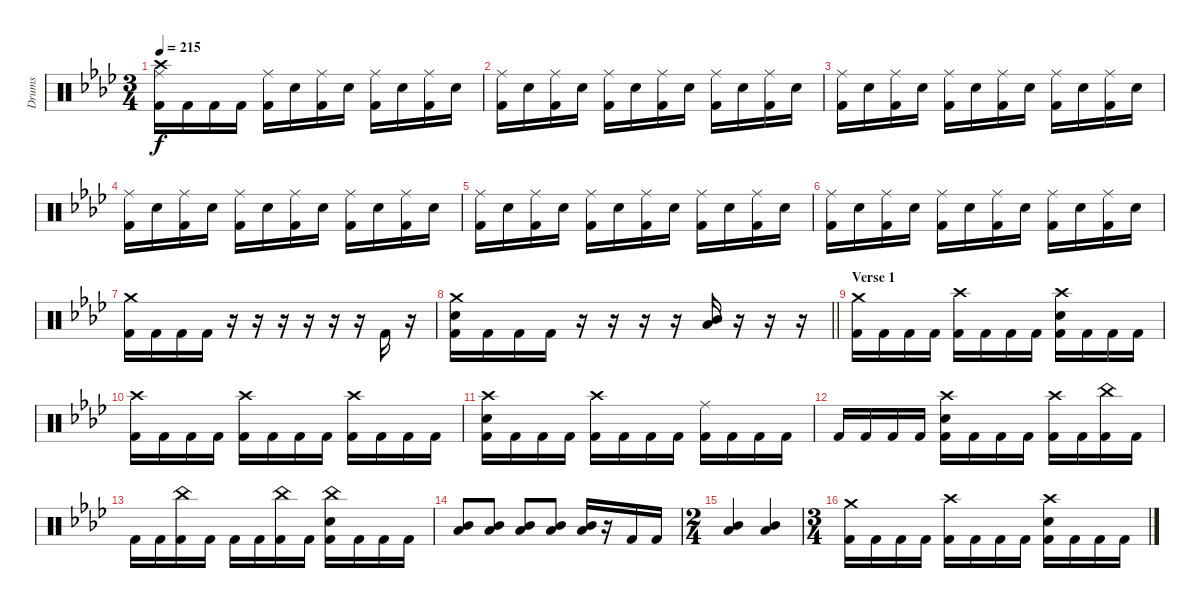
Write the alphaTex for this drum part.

\bracketExtendMode groupsimilarinstruments
\otherSystemsTrackNameOrientation horizontal
\track ("Guyot Begin-Benoit" "Drums") {instrument percussion}
\staff {score}
\articulation defaults
\ts (3 4)
\tempo 215
\clef neutral
\ks ab
("Ride (middle)"{acc forcenatural} "Crash high (hit)"{acc forcenatural} "Kick (hit) 2"{acc forcenatural}).16{dy f beam Down} "Kick (hit) 2"{acc forcenatural}.16{beam Down} "Kick (hit) 2"{acc forcenatural}.16{beam Down} "Kick (hit) 2"{acc forcenatural}.16{beam Down} ("Ride (middle)"{acc forcenatural} "Kick (hit) 2"{acc forcenatural}).16{beam Down} "Snare (hit) 2"{acc forcenatural}.16{beam Down} ("Ride (middle)"{acc forcenatural} "Kick (hit) 2"{acc forcenatural}).16{beam Down} "Snare (hit) 2"{acc forcenatural}.16{beam Down} ("Ride (middle)"{acc forcenatural} "Kick (hit) 2"{acc forcenatural}).16{beam Down} "Snare (hit) 2"{acc forcenatural}.16{beam Down} ("Ride (middle)"{acc forcenatural} "Kick (hit) 2"{acc forcenatural}).16{beam Down} "Snare (hit) 2"{acc forcenatural}.16{beam Down} |
("Ride (middle)"{acc forcenatural} "Kick (hit) 2"{acc forcenatural}).16{beam Down} "Snare (hit) 2"{acc forcenatural}.16{beam Down} ("Ride (middle)"{acc forcenatural} "Kick (hit) 2"{acc forcenatural}).16{beam Down} "Snare (hit) 2"{acc forcenatural}.16{beam Down} ("Ride (middle)"{acc forcenatural} "Kick (hit) 2"{acc forcenatural}).16{beam Down} "Snare (hit) 2"{acc forcenatural}.16{beam Down} ("Ride (middle)"{acc forcenatural} "Kick (hit) 2"{acc forcenatural}).16{beam Down} "Snare (hit) 2"{acc forcenatural}.16{beam Down} ("Ride (middle)"{acc forcenatural} "Kick (hit) 2"{acc forcenatural}).16{beam Down} "Snare (hit) 2"{acc forcenatural}.16{beam Down} ("Ride (middle)"{acc forcenatural} "Kick (hit) 2"{acc forcenatural}).16{beam Down} "Snare (hit) 2"{acc forcenatural}.16{beam Down} |
("Ride (middle)"{acc forcenatural} "Kick (hit) 2"{acc forcenatural}).16{beam Down} "Snare (hit) 2"{acc forcenatural}.16{beam Down} ("Ride (middle)"{acc forcenatural} "Kick (hit) 2"{acc forcenatural}).16{beam Down} "Snare (hit) 2"{acc forcenatural}.16{beam Down} ("Ride (middle)"{acc forcenatural} "Kick (hit) 2"{acc forcenatural}).16{beam Down} "Snare (hit) 2"{acc forcenatural}.16{beam Down} ("Ride (middle)"{acc forcenatural} "Kick (hit) 2"{acc forcenatural}).16{beam Down} "Snare (hit) 2"{acc forcenatural}.16{beam Down} ("Ride (middle)"{acc forcenatural} "Kick (hit) 2"{acc forcenatural}).16{beam Down} "Snare (hit) 2"{acc forcenatural}.16{beam Down} ("Ride (middle)"{acc forcenatural} "Kick (hit) 2"{acc forcenatural}).16{beam Down} "Snare (hit) 2"{acc forcenatural}.16{beam Down} |
("Ride (middle)"{acc forcenatural} "Kick (hit) 2"{acc forcenatural}).16{beam Down} "Snare (hit) 2"{acc forcenatural}.16{beam Down} ("Ride (middle)"{acc forcenatural} "Kick (hit) 2"{acc forcenatural}).16{beam Down} "Snare (hit) 2"{acc forcenatural}.16{beam Down} ("Ride (middle)"{acc forcenatural} "Kick (hit) 2"{acc forcenatural}).16{beam Down} "Snare (hit) 2"{acc forcenatural}.16{beam Down} ("Ride (middle)"{acc forcenatural} "Kick (hit) 2"{acc forcenatural}).16{beam Down} "Snare (hit) 2"{acc forcenatural}.16{beam Down} ("Ride (middle)"{acc forcenatural} "Kick (hit) 2"{acc forcenatural}).16{beam Down} "Snare (hit) 2"{acc forcenatural}.16{beam Down} ("Ride (middle)"{acc forcenatural} "Kick (hit) 2"{acc forcenatural}).16{beam Down} "Snare (hit) 2"{acc forcenatural}.16{beam Down} |
("Ride (middle)"{acc forcenatural} "Kick (hit) 2"{acc forcenatural}).16{beam Down} "Snare (hit) 2"{acc forcenatural}.16{beam Down} ("Ride (middle)"{acc forcenatural} "Kick (hit) 2"{acc forcenatural}).16{beam Down} "Snare (hit) 2"{acc forcenatural}.16{beam Down} ("Ride (middle)"{acc forcenatural} "Kick (hit) 2"{acc forcenatural}).16{beam Down} "Snare (hit) 2"{acc forcenatural}.16{beam Down} ("Ride (middle)"{acc forcenatural} "Kick (hit) 2"{acc forcenatural}).16{beam Down} "Snare (hit) 2"{acc forcenatural}.16{beam Down} ("Ride (middle)"{acc forcenatural} "Kick (hit) 2"{acc forcenatural}).16{beam Down} "Snare (hit) 2"{acc forcenatural}.16{beam Down} ("Ride (middle)"{acc forcenatural} "Kick (hit) 2"{acc forcenatural}).16{beam Down} "Snare (hit) 2"{acc forcenatural}.16{beam Down} |
("Ride (middle)"{acc forcenatural} "Kick (hit) 2"{acc forcenatural}).16{beam Down} "Snare (hit) 2"{acc forcenatural}.16{beam Down} ("Ride (middle)"{acc forcenatural} "Kick (hit) 2"{acc forcenatural}).16{beam Down} "Snare (hit) 2"{acc forcenatural}.16{beam Down} ("Ride (middle)"{acc forcenatural} "Kick (hit) 2"{acc forcenatural}).16{beam Down} "Snare (hit) 2"{acc forcenatural}.16{beam Down} ("Ride (middle)"{acc forcenatural} "Kick (hit) 2"{acc forcenatural}).16{beam Down} "Snare (hit) 2"{acc forcenatural}.16{beam Down} ("Ride (middle)"{acc forcenatural} "Kick (hit) 2"{acc forcenatural}).16{beam Down} "Snare (hit) 2"{acc forcenatural}.16{beam Down} ("Ride (middle)"{acc forcenatural} "Kick (hit) 2"{acc forcenatural}).16{beam Down} "Snare (hit) 2"{acc forcenatural}.16{beam Down} |
("Crash medium (hit)"{acc forcenatural} "Kick (hit) 2"{acc forcenatural}).16{beam Down} "Kick (hit) 2"{acc forcenatural}.16{beam Down} "Kick (hit) 2"{acc forcenatural}.16{beam Down} "Kick (hit) 2"{acc forcenatural}.16{beam Down} r.16{beam Down} r.16{beam Down} r.16{beam Down} r.16{beam Down} r.16{beam Down} r.16{beam Down} "Kick (hit) 2"{acc forcenatural}.16{beam Up} r.16{beam Up} |
\barLineRight lightlight
("Crash medium (hit)"{acc forcenatural} "Snare (hit) 2"{acc forcenatural} "Kick (hit) 2"{acc forcenatural}).16{beam Down} "Kick (hit) 2"{acc forcenatural}.16{beam Down} "Kick (hit) 2"{acc forcenatural}.16{beam Down} "Kick (hit) 2"{acc forcenatural}.16{beam Down} r.16{beam Down} r.16{beam Down} r.16{beam Down} r.16{beam Down} ("Mid Tom (hit)"{acc forcenatural} "Low Tom (hit)"{acc forcenatural}).16{beam Up} r.16{beam Up} r.16{beam Up} r.16{beam Up} |
\section ("" "Verse 1")
("Crash medium (hit)"{acc forcenatural} "Kick (hit) 2"{acc forcenatural}).16{beam Down} "Kick (hit) 2"{acc forcenatural}.16{beam Down} "Kick (hit) 2"{acc forcenatural}.16{beam Down} "Kick (hit) 2"{acc forcenatural}.16{beam Down} ("Crash high (hit)"{acc forcenatural} "Kick (hit) 2"{acc forcenatural}).16{beam Down} "Kick (hit) 2"{acc forcenatural}.16{beam Down} "Kick (hit) 2"{acc forcenatural}.16{beam Down} "Kick (hit) 2"{acc forcenatural}.16{beam Down} ("Crash high (hit)"{acc forcenatural} "Snare (hit) 2"{acc forcenatural} "Kick (hit) 2"{acc forcenatural}).16{beam Down} "Kick (hit) 2"{acc forcenatural}.16{beam Down} "Kick (hit) 2"{acc forcenatural}.16{beam Down} "Kick (hit) 2"{acc forcenatural}.16{beam Down} |
("Crash high (hit)"{acc forcenatural} "Kick (hit) 2"{acc forcenatural}).16{beam Down} "Kick (hit) 2"{acc forcenatural}.16{beam Down} "Kick (hit) 2"{acc forcenatural}.16{beam Down} "Kick (hit) 2"{acc forcenatural}.16{beam Down} ("Crash high (hit)"{acc forcenatural} "Kick (hit) 2"{acc forcenatural}).16{beam Down} "Kick (hit) 2"{acc forcenatural}.16{beam Down} "Kick (hit) 2"{acc forcenatural}.16{beam Down} "Kick (hit) 2"{acc forcenatural}.16{beam Down} ("Crash high (hit)"{acc forcenatural} "Kick (hit) 2"{acc forcenatural}).16{beam Down} "Kick (hit) 2"{acc forcenatural}.16{beam Down} "Kick (hit) 2"{acc forcenatural}.16{beam Down} "Kick (hit) 2"{acc forcenatural}.16{beam Down} |
("Crash high (hit)"{acc forcenatural} "Snare (hit) 2"{acc forcenatural} "Kick (hit) 2"{acc forcenatural}).16{beam Down} "Kick (hit) 2"{acc forcenatural}.16{beam Down} "Kick (hit) 2"{acc forcenatural}.16{beam Down} "Kick (hit) 2"{acc forcenatural}.16{beam Down} ("Crash high (hit)"{acc forcenatural} "Kick (hit) 2"{acc forcenatural}).16{beam Down} "Kick (hit) 2"{acc forcenatural}.16{beam Down} "Kick (hit) 2"{acc forcenatural}.16{beam Down} "Kick (hit) 2"{acc forcenatural}.16{beam Down} ("Ride (middle)"{acc forcenatural} "Kick (hit) 2"{acc forcenatural}).16{beam Down} "Kick (hit) 2"{acc forcenatural}.16{beam Down} "Kick (hit) 2"{acc forcenatural}.16{beam Down} "Kick (hit) 2"{acc forcenatural}.16{beam Down} |
"Kick (hit) 2"{acc forcenatural}.16{beam Up} "Kick (hit) 2"{acc forcenatural}.16{beam Up} "Kick (hit) 2"{acc forcenatural}.16{beam Up} "Kick (hit) 2"{acc forcenatural}.16{beam Up} ("Crash high (hit)"{acc forcenatural} "Snare (hit) 2"{acc forcenatural} "Kick (hit) 2"{acc forcenatural}).16{beam Down} "Kick (hit) 2"{acc forcenatural}.16{beam Down} "Kick (hit) 2"{acc forcenatural}.16{beam Down} "Kick (hit) 2"{acc forcenatural}.16{beam Down} ("Crash high (hit)"{acc forcenatural} "Kick (hit) 2"{acc forcenatural}).16{beam Down} "Kick (hit) 2"{acc forcenatural}.16{beam Down} ("China (hit)"{acc forcenatural} "Kick (hit) 2"{acc forcenatural}).16{beam Down} "Kick (hit) 2"{acc forcenatural}.16{beam Down} |
"Kick (hit) 2"{acc forcenatural}.16{beam Down} "Kick (hit) 2"{acc forcenatural}.16{beam Down} ("China (hit)"{acc forcenatural} "Kick (hit) 2"{acc forcenatural}).16{beam Down} "Kick (hit) 2"{acc forcenatural}.16{beam Down} "Kick (hit) 2"{acc forcenatural}.16{beam Down} "Kick (hit) 2"{acc forcenatural}.16{beam Down} ("China (hit)"{acc forcenatural} "Kick (hit) 2"{acc forcenatural}).16{beam Down} "Kick (hit) 2"{acc forcenatural}.16{beam Down} ("China (hit)"{acc forcenatural} "Snare (hit) 2"{acc forcenatural} "Kick (hit) 2"{acc forcenatural}).16{beam Down} "Kick (hit) 2"{acc forcenatural}.16{beam Down} "Kick (hit) 2"{acc forcenatural}.16{beam Down} "Kick (hit) 2"{acc forcenatural}.16{beam Down} |
("Low Tom (hit)"{acc forcenatural} "Mid Tom (hit)"{acc forcenatural}).8{beam Up} ("Low Tom (hit)"{acc forcenatural} "Mid Tom (hit)"{acc forcenatural}).8{beam Up} ("Low Tom (hit)"{acc forcenatural} "Mid Tom (hit)"{acc forcenatural}).8{beam Up} ("Low Tom (hit)"{acc forcenatural} "Mid Tom (hit)"{acc forcenatural}).8{beam Up} ("Low Tom (hit)"{acc forcenatural} "Mid Tom (hit)"{acc forcenatural}).16{beam Up} r.16{beam Up} "Kick (hit) 2"{acc forcenatural}.16{beam Up} "Kick (hit) 2"{acc forcenatural}.16{beam Up} |
\ts (2 4)
\beaming (8 2 2 2 2)
("Low Tom (hit)"{acc forcenatural} "Mid Tom (hit)"{acc forcenatural}).4{beam Up} ("Low Tom (hit)"{acc forcenatural} "Mid Tom (hit)"{acc forcenatural}).4{beam Up} |
\ts (3 4)
\beaming (8 2 2 2 2)
("Crash medium (hit)"{acc forcenatural} "Kick (hit) 2"{acc forcenatural}).16{beam Down} "Kick (hit) 2"{acc forcenatural}.16{beam Down} "Kick (hit) 2"{acc forcenatural}.16{beam Down} "Kick (hit) 2"{acc forcenatural}.16{beam Down} ("Crash high (hit)"{acc forcenatural} "Kick (hit) 2"{acc forcenatural}).16{beam Down} "Kick (hit) 2"{acc forcenatural}.16{beam Down} "Kick (hit) 2"{acc forcenatural}.16{beam Down} "Kick (hit) 2"{acc forcenatural}.16{beam Down} ("Crash high (hit)"{acc forcenatural} "Snare (hit) 2"{acc forcenatural} "Kick (hit) 2"{acc forcenatural}).16{beam Down} "Kick (hit) 2"{acc forcenatural}.16{beam Down} "Kick (hit) 2"{acc forcenatural}.16{beam Down} "Kick (hit) 2"{acc forcenatural}.16{beam Down}
